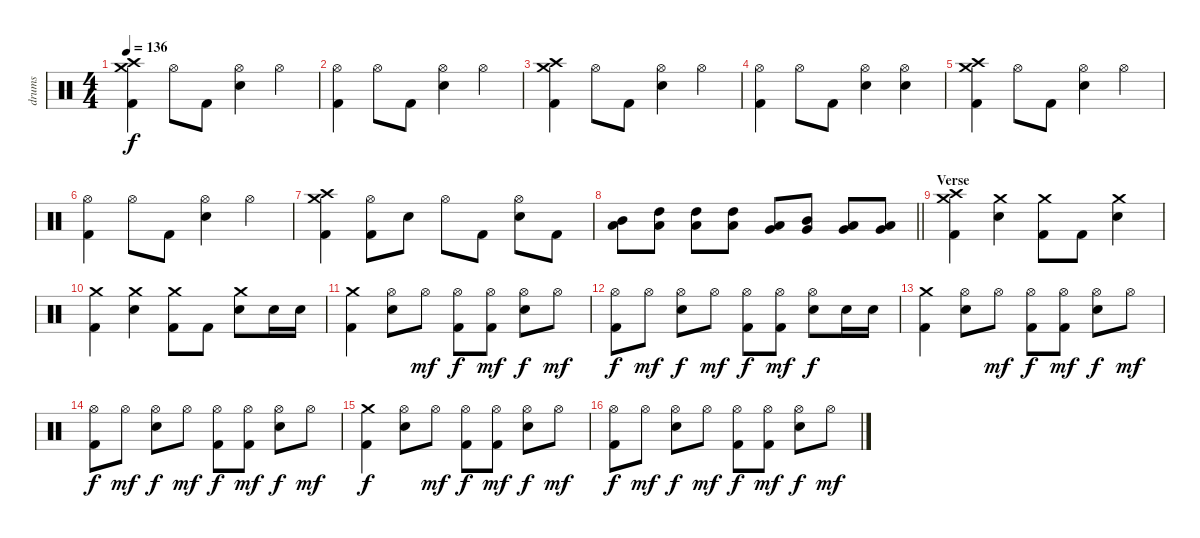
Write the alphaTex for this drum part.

\track ("drums" "drums") {instrument percussion}
\staff {score}
\articulation defaults
\ts (4 4)
\tempo 136
\clef neutral
\ks c
("Crash medium (hit)" "Crash high (hit)" "Kick (hit) 2").4{dy f} "Hi-Hat (open)".8 "Kick (hit) 2".8 ("Hi-Hat (open)" "Electric Snare (hit)").4 "Hi-Hat (open)".4 |
("Hi-Hat (open)" "Kick (hit) 2").4 "Hi-Hat (open)".8 "Kick (hit) 2".8 ("Hi-Hat (open)" "Electric Snare (hit)").4 "Hi-Hat (open)".4 |
("Crash medium (hit)" "Crash high (hit)" "Kick (hit) 2").4 "Hi-Hat (open)".8 "Kick (hit) 2".8 ("Hi-Hat (open)" "Electric Snare (hit)").4 "Hi-Hat (open)".4 |
("Hi-Hat (open)" "Kick (hit) 2").4 "Hi-Hat (open)".8 "Kick (hit) 2".8 ("Hi-Hat (open)" "Electric Snare (hit)").4 ("Hi-Hat (open)" "Electric Snare (hit)").4 |
("Crash medium (hit)" "Crash high (hit)" "Kick (hit) 2").4 "Hi-Hat (open)".8 "Kick (hit) 2".8 ("Hi-Hat (open)" "Electric Snare (hit)").4 "Hi-Hat (open)".4 |
("Hi-Hat (open)" "Kick (hit) 2").4 "Hi-Hat (open)".8 "Kick (hit) 2".8 ("Hi-Hat (open)" "Electric Snare (hit)").4 "Hi-Hat (open)".4 |
("Crash medium (hit)" "Crash high (hit)" "Kick (hit) 2").4 ("Hi-Hat (open)" "Kick (hit) 2").8 "Electric Snare (hit)".8 "Hi-Hat (open)".8 "Kick (hit) 2".8 ("Hi-Hat (open)" "Electric Snare (hit)").8 "Kick (hit) 2".8 |
\barLineRight lightlight
("Mid Tom (hit)" "Low Tom (hit)").8 ("High Tom (hit)" "Low Tom (hit)").8 ("High Tom (hit)" "Low Tom (hit)").8 ("High Tom (hit)" "Low Tom (hit)").8 ("Low Tom (hit)" "Very Low Tom (hit)").8 ("Mid Tom (hit)" "Very Low Tom (hit)").8 ("Low Tom (hit)" "Very Low Tom (hit)").8 ("Low Tom (hit)" "Very Low Tom (hit)").8 |
\section ("" "Verse")
("Crash medium (hit)" "Crash high (hit)" "Kick (hit) 2").4 ("Crash medium (hit)" "Electric Snare (hit)").4 ("Crash medium (hit)" "Kick (hit) 2").8 "Kick (hit) 2".8 ("Crash medium (hit)" "Electric Snare (hit)").4 |
("Crash medium (hit)" "Kick (hit) 2").4 ("Crash medium (hit)" "Electric Snare (hit)").4 ("Crash medium (hit)" "Kick (hit) 2").8 "Kick (hit) 2".8 ("Crash medium (hit)" "Electric Snare (hit)").8 "Electric Snare (hit)".16 "Electric Snare (hit)".16 |
("Crash medium (hit)" "Kick (hit) 2").4 ("Hi-Hat (open)" "Electric Snare (hit)").8 "Hi-Hat (open)".8{dy mf} ("Hi-Hat (open)" "Kick (hit) 2").8{dy f} ("Hi-Hat (open)" "Kick (hit) 2").8{dy mf} ("Hi-Hat (open)" "Electric Snare (hit)").8{dy f} "Hi-Hat (open)".8{dy mf} |
("Hi-Hat (open)" "Kick (hit) 2").8{dy f} "Hi-Hat (open)".8{dy mf} ("Hi-Hat (open)" "Electric Snare (hit)").8{dy f} "Hi-Hat (open)".8{dy mf} ("Hi-Hat (open)" "Kick (hit) 2").8{dy f} ("Hi-Hat (open)" "Kick (hit) 2").8{dy mf} ("Hi-Hat (open)" "Electric Snare (hit)").8{dy f} "Electric Snare (hit)".16 "Electric Snare (hit)".16 |
("Crash medium (hit)" "Kick (hit) 2").4 ("Hi-Hat (open)" "Electric Snare (hit)").8 "Hi-Hat (open)".8{dy mf} ("Hi-Hat (open)" "Kick (hit) 2").8{dy f} ("Hi-Hat (open)" "Kick (hit) 2").8{dy mf} ("Hi-Hat (open)" "Electric Snare (hit)").8{dy f} "Hi-Hat (open)".8{dy mf} |
("Hi-Hat (open)" "Kick (hit) 2").8{dy f} "Hi-Hat (open)".8{dy mf} ("Hi-Hat (open)" "Electric Snare (hit)").8{dy f} "Hi-Hat (open)".8{dy mf} ("Hi-Hat (open)" "Kick (hit) 2").8{dy f} ("Hi-Hat (open)" "Kick (hit) 2").8{dy mf} ("Hi-Hat (open)" "Electric Snare (hit)").8{dy f} "Hi-Hat (open)".8{dy mf} |
("Crash medium (hit)" "Kick (hit) 2").4{dy f} ("Hi-Hat (open)" "Electric Snare (hit)").8 "Hi-Hat (open)".8{dy mf} ("Hi-Hat (open)" "Kick (hit) 2").8{dy f} ("Hi-Hat (open)" "Kick (hit) 2").8{dy mf} ("Hi-Hat (open)" "Electric Snare (hit)").8{dy f} "Hi-Hat (open)".8{dy mf} |
("Hi-Hat (open)" "Kick (hit) 2").8{dy f} "Hi-Hat (open)".8{dy mf} ("Hi-Hat (open)" "Electric Snare (hit)").8{dy f} "Hi-Hat (open)".8{dy mf} ("Hi-Hat (open)" "Kick (hit) 2").8{dy f} ("Hi-Hat (open)" "Kick (hit) 2").8{dy mf} ("Hi-Hat (open)" "Electric Snare (hit)").8{dy f} "Hi-Hat (open)".8{dy mf}
